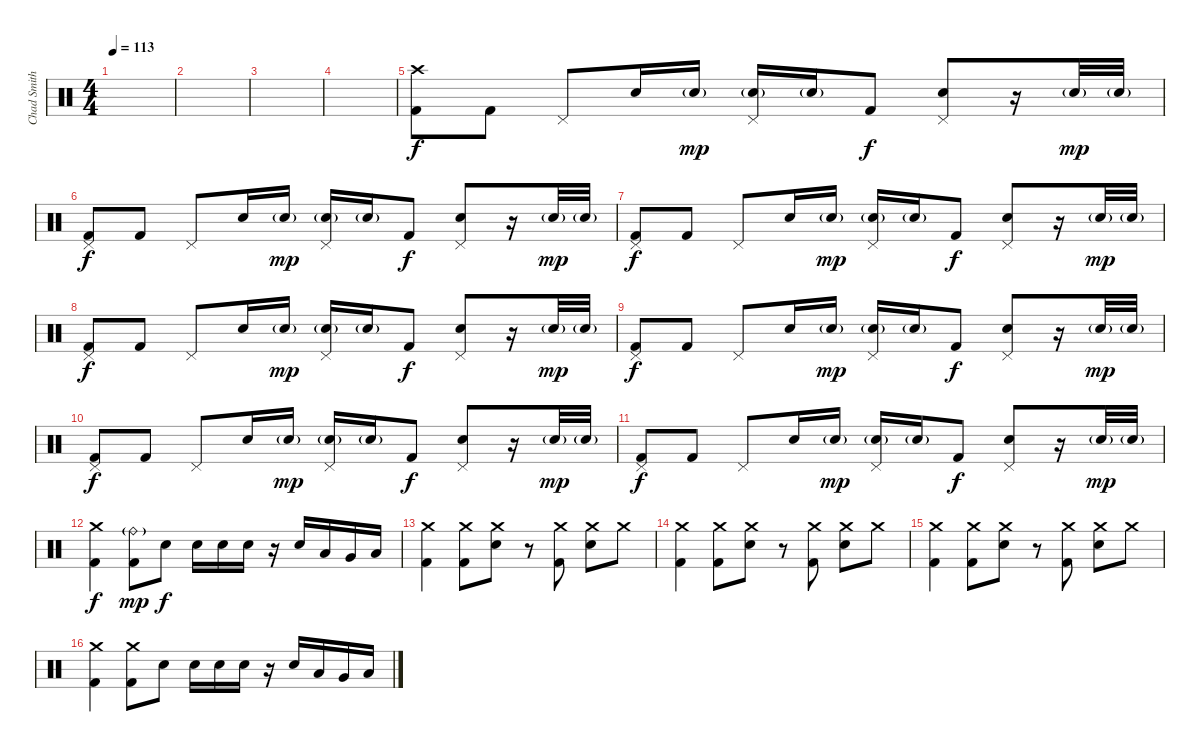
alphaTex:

\track ("Chad Smith" "Chad Smith") {instrument percussion}
\staff {score}
\articulation defaults
\ts (4 4)
\tempo 113
\clef neutral
\ks c
|
|
|
|
("Crash high (hit)" "Kick (hit) 2").8 "Kick (hit) 2".8 "Pedal Hi-Hat (hit)".8 "Snare (hit) 2".16 "Snare (hit) 2"{g}.16{dy mp} ("Pedal Hi-Hat (hit)" "Snare (hit) 2"{g}).16 "Snare (hit) 2"{g}.16 "Kick (hit) 2".8{dy f} ("Pedal Hi-Hat (hit)" "Snare (hit) 2").8 r.16 "Snare (hit) 2"{g}.32{dy mp} "Snare (hit) 2"{g}.32 |
("Pedal Hi-Hat (hit)" "Kick (hit) 2").8{dy f} "Kick (hit) 2".8 "Pedal Hi-Hat (hit)".8 "Snare (hit) 2".16 "Snare (hit) 2"{g}.16{dy mp} ("Pedal Hi-Hat (hit)" "Snare (hit) 2"{g}).16 "Snare (hit) 2"{g}.16 "Kick (hit) 2".8{dy f} ("Pedal Hi-Hat (hit)" "Snare (hit) 2").8 r.16 "Snare (hit) 2"{g}.32{dy mp} "Snare (hit) 2"{g}.32 |
("Pedal Hi-Hat (hit)" "Kick (hit) 2").8{dy f} "Kick (hit) 2".8 "Pedal Hi-Hat (hit)".8 "Snare (hit) 2".16 "Snare (hit) 2"{g}.16{dy mp} ("Pedal Hi-Hat (hit)" "Snare (hit) 2"{g}).16 "Snare (hit) 2"{g}.16 "Kick (hit) 2".8{dy f} ("Pedal Hi-Hat (hit)" "Snare (hit) 2").8 r.16 "Snare (hit) 2"{g}.32{dy mp} "Snare (hit) 2"{g}.32 |
("Pedal Hi-Hat (hit)" "Kick (hit) 2").8{dy f} "Kick (hit) 2".8 "Pedal Hi-Hat (hit)".8 "Snare (hit) 2".16 "Snare (hit) 2"{g}.16{dy mp} ("Pedal Hi-Hat (hit)" "Snare (hit) 2"{g}).16 "Snare (hit) 2"{g}.16 "Kick (hit) 2".8{dy f} ("Pedal Hi-Hat (hit)" "Snare (hit) 2").8 r.16 "Snare (hit) 2"{g}.32{dy mp} "Snare (hit) 2"{g}.32 |
("Pedal Hi-Hat (hit)" "Kick (hit) 2").8{dy f} "Kick (hit) 2".8 "Pedal Hi-Hat (hit)".8 "Snare (hit) 2".16 "Snare (hit) 2"{g}.16{dy mp} ("Pedal Hi-Hat (hit)" "Snare (hit) 2"{g}).16 "Snare (hit) 2"{g}.16 "Kick (hit) 2".8{dy f} ("Pedal Hi-Hat (hit)" "Snare (hit) 2").8 r.16 "Snare (hit) 2"{g}.32{dy mp} "Snare (hit) 2"{g}.32 |
("Pedal Hi-Hat (hit)" "Kick (hit) 2").8{dy f} "Kick (hit) 2".8 "Pedal Hi-Hat (hit)".8 "Snare (hit) 2".16 "Snare (hit) 2"{g}.16{dy mp} ("Pedal Hi-Hat (hit)" "Snare (hit) 2"{g}).16 "Snare (hit) 2"{g}.16 "Kick (hit) 2".8{dy f} ("Pedal Hi-Hat (hit)" "Snare (hit) 2").8 r.16 "Snare (hit) 2"{g}.32{dy mp} "Snare (hit) 2"{g}.32 |
("Pedal Hi-Hat (hit)" "Kick (hit) 2").8{dy f} "Kick (hit) 2".8 "Pedal Hi-Hat (hit)".8 "Snare (hit) 2".16 "Snare (hit) 2"{g}.16{dy mp} ("Pedal Hi-Hat (hit)" "Snare (hit) 2"{g}).16 "Snare (hit) 2"{g}.16 "Kick (hit) 2".8{dy f} ("Pedal Hi-Hat (hit)" "Snare (hit) 2").8 r.16 "Snare (hit) 2"{g}.32{dy mp} "Snare (hit) 2"{g}.32 |
("Crash medium (hit)" "Kick (hit) 2").4{dy f} ("Ride (bell)"{g} "Kick (hit) 2").8{dy mp} "Snare (hit) 2".8{dy f} "Snare (hit) 2".16 "Snare (hit) 2".16 "Snare (hit) 2".16 r.16 "Snare (hit) 2".16 "Low Tom (hit)".16 "Very Low Tom (hit)".16 "Low Floor Tom (hit)".16 |
("Crash medium (hit)" "Kick (hit) 2").4 ("Crash medium (hit)" "Kick (hit) 2").8 ("Crash medium (hit)" "Snare (hit) 2").8 r.8 ("Crash medium (hit)" "Kick (hit) 2").8 ("Crash medium (hit)" "Snare (hit) 2").8 "Crash medium (hit)".8 |
("Crash medium (hit)" "Kick (hit) 2").4 ("Crash medium (hit)" "Kick (hit) 2").8 ("Crash medium (hit)" "Snare (hit) 2").8 r.8 ("Crash medium (hit)" "Kick (hit) 2").8 ("Crash medium (hit)" "Snare (hit) 2").8 "Crash medium (hit)".8 |
("Crash medium (hit)" "Kick (hit) 2").4 ("Crash medium (hit)" "Kick (hit) 2").8 ("Crash medium (hit)" "Snare (hit) 2").8 r.8 ("Crash medium (hit)" "Kick (hit) 2").8 ("Crash medium (hit)" "Snare (hit) 2").8 "Crash medium (hit)".8 |
("Crash medium (hit)" "Kick (hit) 2").4 ("Crash medium (hit)" "Kick (hit) 2").8 "Snare (hit) 2".8 "Snare (hit) 2".16 "Snare (hit) 2".16 "Snare (hit) 2".16 r.16 "Snare (hit) 2".16 "Low Tom (hit)".16 "Very Low Tom (hit)".16 "Low Floor Tom (hit)".16
